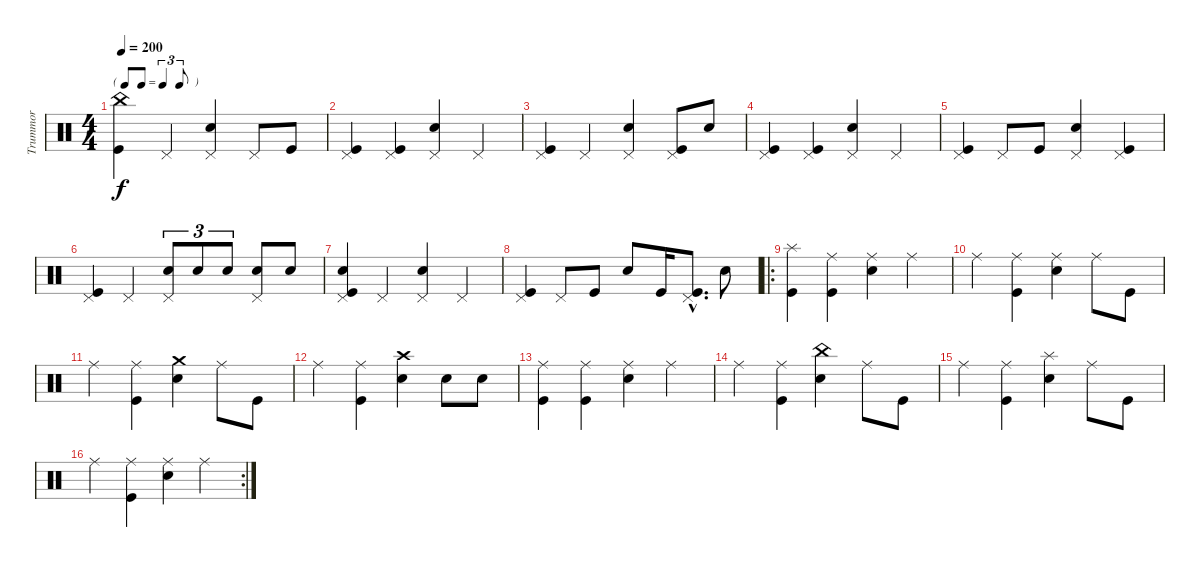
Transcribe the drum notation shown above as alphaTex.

\track ("Trummor" "Trummor") {instrument percussion}
\staff {score}
\articulation defaults
\ts (4 4)
\tf triplet8th
\tempo 200
\clef neutral
\ks c
("China (hit)" "Kick (hit)").4{dy f} "Pedal Hi-Hat (hit)".4 ("Pedal Hi-Hat (hit)" "Snare (hit) 2").4 "Pedal Hi-Hat (hit)".8 "Kick (hit)".8 |
("Pedal Hi-Hat (hit)" "Kick (hit)").4 ("Pedal Hi-Hat (hit)" "Kick (hit)").4 ("Pedal Hi-Hat (hit)" "Snare (hit) 2").4 "Pedal Hi-Hat (hit)".4 |
("Pedal Hi-Hat (hit)" "Kick (hit)").4 "Pedal Hi-Hat (hit)".4 ("Pedal Hi-Hat (hit)" "Snare (hit) 2").4 ("Pedal Hi-Hat (hit)" "Kick (hit)").8 "Snare (hit) 2".8 |
("Pedal Hi-Hat (hit)" "Kick (hit)").4 ("Pedal Hi-Hat (hit)" "Kick (hit)").4 ("Pedal Hi-Hat (hit)" "Snare (hit) 2").4 "Pedal Hi-Hat (hit)".4 |
("Pedal Hi-Hat (hit)" "Kick (hit)").4 "Pedal Hi-Hat (hit)".8 "Kick (hit)".8 ("Pedal Hi-Hat (hit)" "Snare (hit) 2").4 ("Pedal Hi-Hat (hit)" "Kick (hit)").4 |
("Pedal Hi-Hat (hit)" "Kick (hit)").4 "Pedal Hi-Hat (hit)".4 ("Pedal Hi-Hat (hit)" "Snare (hit) 2").8{tu (3 2)} "Snare (hit) 2".8{tu (3 2)} "Snare (hit) 2".8{tu (3 2)} ("Pedal Hi-Hat (hit)" "Snare (hit) 2").8 "Snare (hit) 2".8 |
("Pedal Hi-Hat (hit)" "Snare (hit) 2" "Kick (hit)").4 "Pedal Hi-Hat (hit)".4 ("Pedal Hi-Hat (hit)" "Snare (hit) 2").4 "Pedal Hi-Hat (hit)".4 |
("Pedal Hi-Hat (hit)" "Kick (hit)").4 "Pedal Hi-Hat (hit)".8 "Kick (hit)".8 "Snare (hit) 2".8 "Kick (hit)".16 ("Pedal Hi-Hat (hit)"{hac} "Kick (hit)"{hac}).8{d} "Snare (hit) 2".8 |
\ro
("Splash (hit)" "Kick (hit)").4 ("Ride (middle)" "Kick (hit)").4 ("Ride (middle)" "Snare (hit) 2").4 "Ride (middle)".4 |
"Ride (middle)".4 ("Ride (middle)" "Kick (hit)").4 ("Ride (middle)" "Snare (hit) 2").4 "Ride (middle)".8 "Kick (hit)".8 |
"Ride (middle)".4 ("Ride (middle)" "Kick (hit)").4 ("Crash medium (hit)" "Snare (hit) 2").4 "Ride (middle)".8 "Kick (hit)".8 |
"Ride (middle)".4 ("Ride (middle)" "Kick (hit)").4 ("Crash high (hit)" "Snare (hit) 2").4 "Snare (hit) 2".8 "Snare (hit) 2".8 |
("Ride (middle)" "Kick (hit)").4 ("Ride (middle)" "Kick (hit)").4 ("Ride (middle)" "Snare (hit) 2").4 "Ride (middle)".4 |
"Ride (middle)".4 ("Ride (middle)" "Kick (hit)").4 ("China (hit)" "Snare (hit) 2").4 "Ride (middle)".8 "Kick (hit)".8 |
"Ride (middle)".4 ("Ride (middle)" "Kick (hit)").4 ("Splash (hit)" "Snare (hit) 2").4 "Ride (middle)".8 "Kick (hit)".8 |
\rc 2 "Ride (middle)".4
("Ride (middle)" "Kick (hit)").4 ("Ride (middle)" "Snare (hit) 2").4 "Ride (middle)".4
